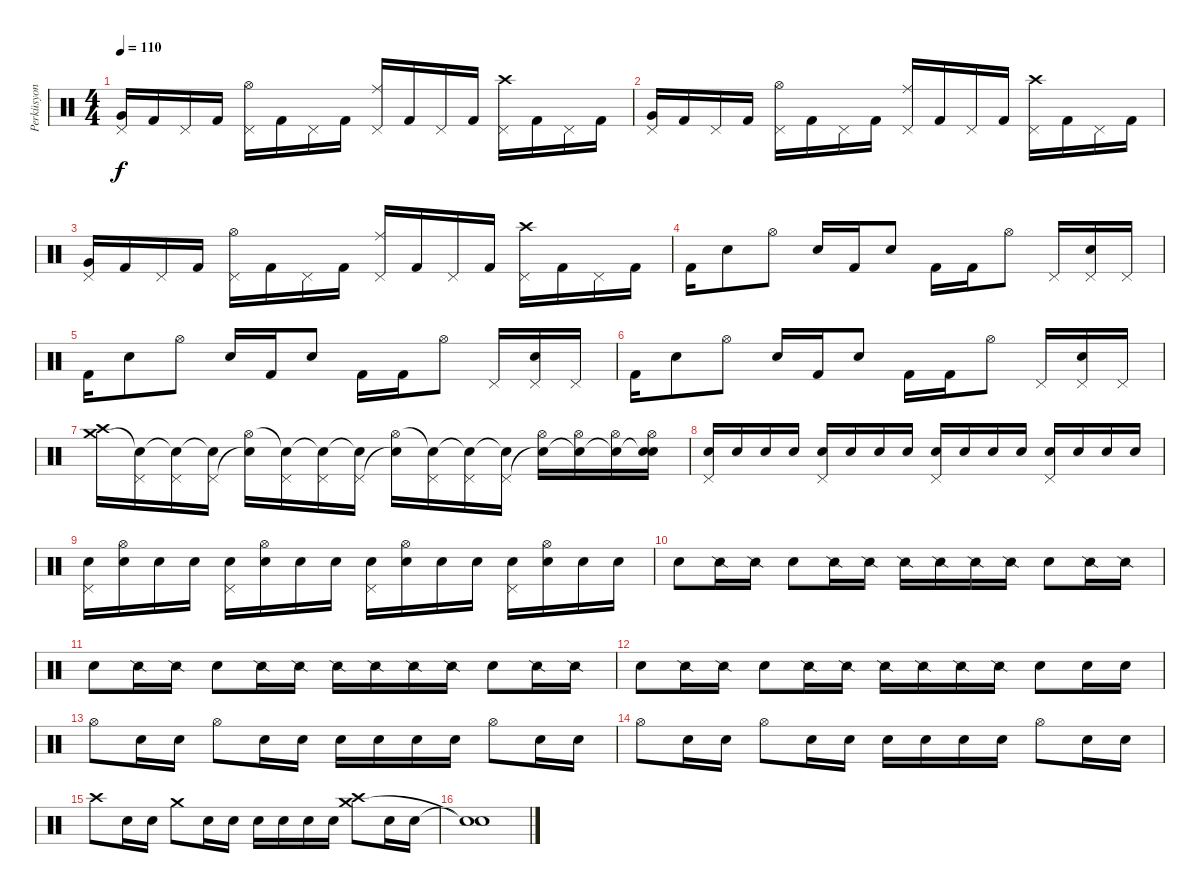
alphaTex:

\track ("Perküsyon" "Perküsyon") {instrument percussion}
\staff {score}
\articulation defaults
\ts (4 4)
\tempo 110
\clef neutral
\ks c
("Very Low Tom (hit)" "Pedal Hi-Hat (hit)").16{dy f} "Kick (hit) 2".16 "Pedal Hi-Hat (hit)".16 "Kick (hit) 2".16 ("Hi-Hat (open)" "Pedal Hi-Hat (hit)").16 "Kick (hit) 2".16 "Pedal Hi-Hat (hit)".16 "Kick (hit) 2".16 ("Ride (middle)" "Pedal Hi-Hat (hit)").16 "Kick (hit) 2".16 "Pedal Hi-Hat (hit)".16 "Kick (hit) 2".16 ("Crash high (hit)" "Pedal Hi-Hat (hit)").16 "Kick (hit) 2".16 "Pedal Hi-Hat (hit)".16 "Kick (hit) 2".16 |
("Very Low Tom (hit)" "Pedal Hi-Hat (hit)").16 "Kick (hit) 2".16 "Pedal Hi-Hat (hit)".16 "Kick (hit) 2".16 ("Hi-Hat (open)" "Pedal Hi-Hat (hit)").16 "Kick (hit) 2".16 "Pedal Hi-Hat (hit)".16 "Kick (hit) 2".16 ("Ride (middle)" "Pedal Hi-Hat (hit)").16 "Kick (hit) 2".16 "Pedal Hi-Hat (hit)".16 "Kick (hit) 2".16 ("Crash high (hit)" "Pedal Hi-Hat (hit)").16 "Kick (hit) 2".16 "Pedal Hi-Hat (hit)".16 "Kick (hit) 2".16 |
("Very Low Tom (hit)" "Pedal Hi-Hat (hit)").16 "Kick (hit) 2".16 "Pedal Hi-Hat (hit)".16 "Kick (hit) 2".16 ("Hi-Hat (open)" "Pedal Hi-Hat (hit)").16 "Kick (hit) 2".16 "Pedal Hi-Hat (hit)".16 "Kick (hit) 2".16 ("Ride (middle)" "Pedal Hi-Hat (hit)").16 "Kick (hit) 2".16 "Pedal Hi-Hat (hit)".16 "Kick (hit) 2".16 ("Crash high (hit)" "Pedal Hi-Hat (hit)").16 "Kick (hit) 2".16 "Pedal Hi-Hat (hit)".16 "Kick (hit) 2".16 |
"Kick (hit) 2".16 "Snare (hit) 2".8 "Hi-Hat (open)".8 "Snare (hit) 2".16 "Kick (hit) 2".16 "Electric Snare (hit)".8 "Kick (hit) 2".16 "Kick (hit) 2".16 "Hi-Hat (open)".8 "Pedal Hi-Hat (hit)".16 ("Pedal Hi-Hat (hit)" "Snare (hit) 2").16 "Pedal Hi-Hat (hit)".16 |
"Kick (hit) 2".16 "Snare (hit) 2".8 "Hi-Hat (open)".8 "Snare (hit) 2".16 "Kick (hit) 2".16 "Electric Snare (hit)".8 "Kick (hit) 2".16 "Kick (hit) 2".16 "Hi-Hat (open)".8 "Pedal Hi-Hat (hit)".16 ("Pedal Hi-Hat (hit)" "Snare (hit) 2").16 "Pedal Hi-Hat (hit)".16 |
"Kick (hit) 2".16 "Snare (hit) 2".8 "Hi-Hat (open)".8 "Snare (hit) 2".16 "Kick (hit) 2".16 "Electric Snare (hit)".8 "Kick (hit) 2".16 "Kick (hit) 2".16 "Hi-Hat (open)".8 "Pedal Hi-Hat (hit)".16 ("Pedal Hi-Hat (hit)" "Snare (hit) 2").16 "Pedal Hi-Hat (hit)".16 |
("Crash medium (hit)" "Crash high (hit)").16 ("Snare (hit)"{t} "Pedal Hi-Hat (hit)").16 ("Snare (hit)"{t} "Pedal Hi-Hat (hit)").16 ("Snare (hit)"{t} "Pedal Hi-Hat (hit)").16 ("Hi-Hat (open)" "Snare (hit)"{t}).16 ("Snare (hit)"{t} "Pedal Hi-Hat (hit)").16 ("Snare (hit)"{t} "Pedal Hi-Hat (hit)").16 ("Snare (hit)"{t} "Pedal Hi-Hat (hit)").16 ("Hi-Hat (open)" "Snare (hit)"{t}).16 ("Snare (hit)"{t} "Pedal Hi-Hat (hit)").16 ("Snare (hit)"{t} "Pedal Hi-Hat (hit)").16 ("Snare (hit)"{t} "Pedal Hi-Hat (hit)").16 ("Hi-Hat (open)" "Snare (hit)"{t}).16 ("Hi-Hat (open)" "Snare (hit)"{t}).16 ("Hi-Hat (open)" "Snare (hit)"{t}).16 ("Hi-Hat (open)" "Snare (hit)"{t} "Snare (hit)").16 |
("Pedal Hi-Hat (hit)" "Metronome (bell)").16 "Metronome (bell)".16 "Metronome (bell)".16 "Metronome (bell)".16 ("Pedal Hi-Hat (hit)" "Metronome (bell)").16 "Metronome (bell)".16 "Metronome (bell)".16 "Metronome (bell)".16 ("Pedal Hi-Hat (hit)" "Metronome (bell)").16 "Metronome (bell)".16 "Metronome (bell)".16 "Metronome (bell)".16 ("Pedal Hi-Hat (hit)" "Metronome (bell)").16 "Metronome (bell)".16 "Metronome (bell)".16 "Metronome (bell)".16 |
("Pedal Hi-Hat (hit)" "Metronome (bell)").16 ("Hi-Hat (open)" "Metronome (bell)").16 "Metronome (bell)".16 "Metronome (bell)".16 ("Pedal Hi-Hat (hit)" "Metronome (bell)").16 ("Hi-Hat (open)" "Metronome (bell)").16 "Metronome (bell)".16 "Metronome (bell)".16 ("Pedal Hi-Hat (hit)" "Metronome (bell)").16 ("Hi-Hat (open)" "Metronome (bell)").16 "Metronome (bell)".16 "Metronome (bell)".16 ("Pedal Hi-Hat (hit)" "Metronome (bell)").16 ("Hi-Hat (open)" "Metronome (bell)").16 "Metronome (bell)".16 "Metronome (bell)".16 |
"Metronome (bell)".8 "Snare (side stick) 2".16 "Snare (side stick) 2".16 "Metronome (bell)".8 "Snare (side stick) 2".16 "Snare (side stick) 2".16 "Snare (side stick) 2".16 "Snare (side stick) 2".16 "Snare (side stick) 2".16 "Snare (side stick) 2".16 "Metronome (bell)".8 "Snare (side stick) 2".16 "Snare (side stick) 2".16 |
"Metronome (bell)".8 "Snare (side stick) 2".16 "Snare (side stick) 2".16 "Metronome (bell)".8 "Snare (side stick) 2".16 "Snare (side stick) 2".16 "Snare (side stick) 2".16 "Snare (side stick) 2".16 "Snare (side stick) 2".16 "Snare (side stick) 2".16 "Metronome (bell)".8 "Snare (side stick) 2".16 "Snare (side stick) 2".16 |
"Metronome (bell)".8 "Snare (side stick) 2".16 "Snare (side stick) 2".16 "Metronome (bell)".8 "Snare (side stick) 2".16 "Snare (side stick) 2".16 "Snare (side stick) 2".16 "Snare (side stick) 2".16 "Snare (side stick) 2".16 "Snare (side stick) 2".16 "Metronome (bell)".8 "Snare (hit) 2".16 "Snare (hit) 2".16 |
"Hi-Hat (open)".8 "Electric Snare (hit)".16 "Electric Snare (hit)".16 "Hi-Hat (open)".8 "Electric Snare (hit)".16 "Electric Snare (hit)".16 "Snare (hit) 2".16 "Electric Snare (hit)".16 "Snare (hit) 2".16 "Electric Snare (hit)".16 "Hi-Hat (open)".8 "Snare (hit) 2".16 "Electric Snare (hit)".16 |
"Hi-Hat (open)".8 "Electric Snare (hit)".16 "Electric Snare (hit)".16 "Hi-Hat (open)".8 "Electric Snare (hit)".16 "Electric Snare (hit)".16 "Snare (hit) 2".16 "Electric Snare (hit)".16 "Snare (hit) 2".16 "Electric Snare (hit)".16 "Hi-Hat (open)".8 "Snare (hit) 2".16 "Electric Snare (hit)".16 |
"Crash high (hit)".8 "Electric Snare (hit)".16 "Electric Snare (hit)".16 "Crash medium (hit)".8 "Electric Snare (hit)".16 "Electric Snare (hit)".16 "Snare (hit) 2".16 "Electric Snare (hit)".16 "Snare (hit) 2".16 "Electric Snare (hit)".16 ("Crash high (hit)" "Crash medium (hit)").8 "Snare (hit) 2".16 "Electric Snare (hit)".16 |
("Snare (hit)"{t} "Snare (hit)"{t}).1
